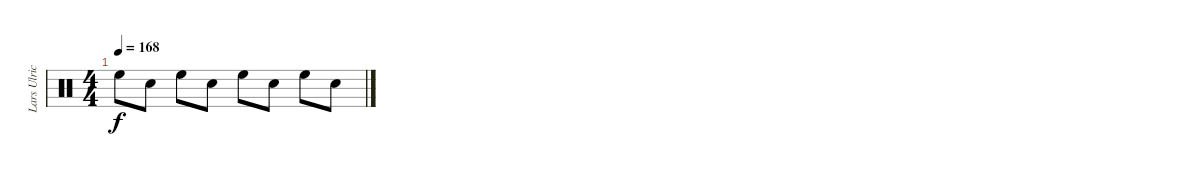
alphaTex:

\track ("Lars Ulrich (Drums)" "Lars Ulric") {instrument percussion}
\staff {score}
\articulation defaults
\ts (4 4)
\tempo 168
\clef neutral
\ks c "High Floor Tom (hit)".8{dy f} "Electric Snare (hit)".8 "High Floor Tom (hit)".8 "Electric Snare (hit)".8 "High Floor Tom (hit)".8 "Electric Snare (hit)".8 "High Floor Tom (hit)".8 "Electric Snare (hit)".8
